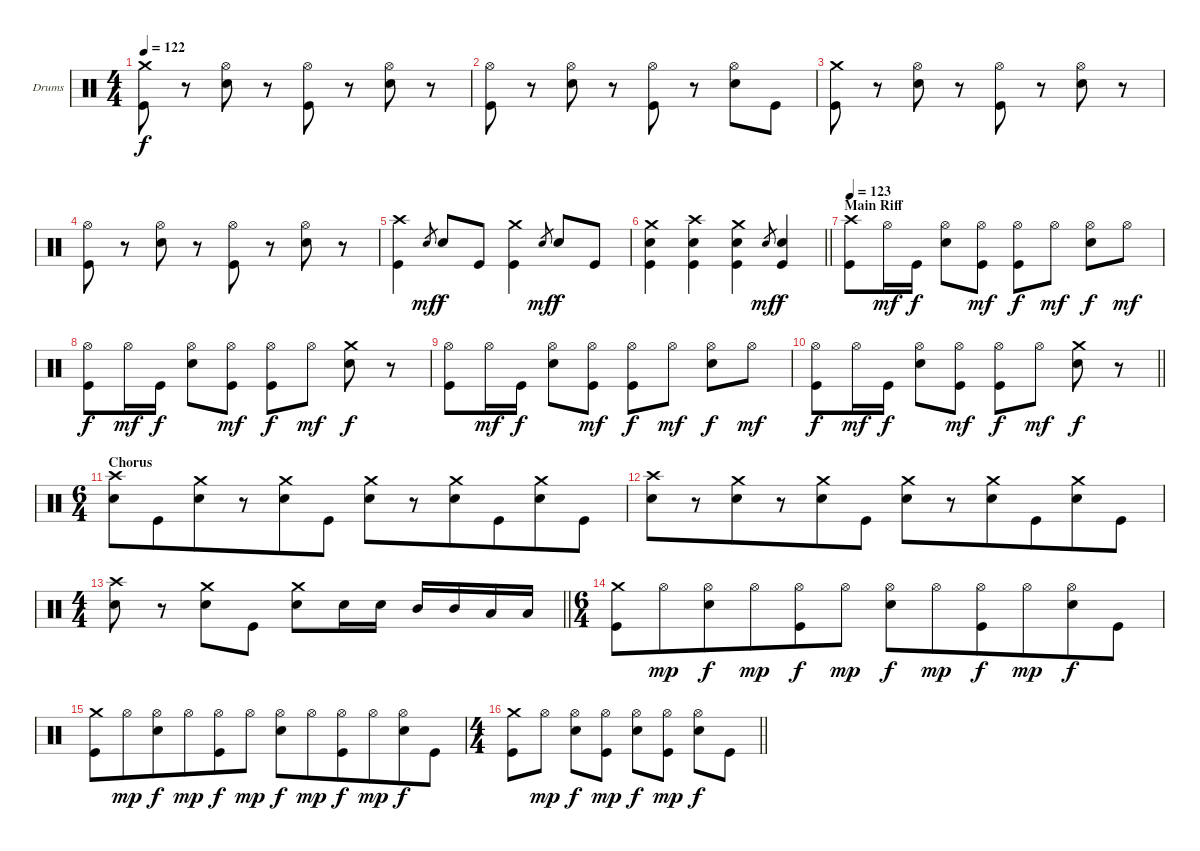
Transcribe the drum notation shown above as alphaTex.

\bracketExtendMode groupsimilarinstruments
\firstSystemTrackNameOrientation horizontal
\otherSystemsTrackNameOrientation horizontal
\track ("Drumkit" "Drums") {instrument percussion}
\staff {score}
\articulation defaults
\ts (4 4)
\tempo 122
\clef neutral
\ks c
("Crash medium (hit)" "Kick (hit)").8{dy f} r.8 ("Hi-Hat (open)" "Snare (hit) 2").8 r.8 ("Hi-Hat (open)" "Kick (hit)").8 r.8 ("Hi-Hat (open)" "Snare (hit) 2").8 r.8 |
("Hi-Hat (open)" "Kick (hit)").8 r.8 ("Hi-Hat (open)" "Snare (hit) 2").8 r.8 ("Hi-Hat (open)" "Kick (hit)").8 r.8 ("Hi-Hat (open)" "Snare (hit) 2").8 "Kick (hit)".8 |
("Crash medium (hit)" "Kick (hit)").8 r.8 ("Hi-Hat (open)" "Snare (hit) 2").8 r.8 ("Hi-Hat (open)" "Kick (hit)").8 r.8 ("Hi-Hat (open)" "Snare (hit) 2").8 r.8 |
("Hi-Hat (open)" "Kick (hit)").8 r.8 ("Hi-Hat (open)" "Snare (hit) 2").8 r.8 ("Hi-Hat (open)" "Kick (hit)").8 r.8 ("Hi-Hat (open)" "Snare (hit) 2").8 r.8 |
("Crash high (hit)" "Kick (hit)").4 "Snare (hit) 2".8{gr dy mf} "Snare (hit) 2".8{dy f} "Kick (hit)".8 ("Crash medium (hit)" "Kick (hit)").4 "Snare (hit) 2".8{gr dy mf} "Snare (hit) 2".8{dy f} "Kick (hit)".8 |
\barLineRight lightlight
("Crash medium (hit)" "Snare (hit) 2" "Kick (hit)").4 ("Crash high (hit)" "Snare (hit) 2" "Kick (hit)").4 ("Crash medium (hit)" "Snare (hit) 2" "Kick (hit)").4 "Snare (hit) 2".8{gr dy mf} ("Snare (hit) 2" "Kick (hit)").4{dy f} |
\section ("" "Main Riff")
\tempo 123
("Crash high (hit)" "Kick (hit)").8 "Hi-Hat (open)".16{dy mf} "Kick (hit)".16{dy f} ("Hi-Hat (open)" "Snare (hit) 2").8 ("Hi-Hat (open)" "Kick (hit)").8{dy mf} ("Hi-Hat (open)" "Kick (hit)").8{dy f} "Hi-Hat (open)".8{dy mf} ("Hi-Hat (open)" "Snare (hit) 2").8{dy f} "Hi-Hat (open)".8{dy mf} |
("Hi-Hat (open)" "Kick (hit)").8{dy f} "Hi-Hat (open)".16{dy mf} "Kick (hit)".16{dy f} ("Hi-Hat (open)" "Snare (hit) 2").8 ("Hi-Hat (open)" "Kick (hit)").8{dy mf} ("Hi-Hat (open)" "Kick (hit)").8{dy f} "Hi-Hat (open)".8{dy mf} ("Crash medium (hit)" "Snare (hit) 2").8{dy f} r.8 |
("Hi-Hat (open)" "Kick (hit)").8 "Hi-Hat (open)".16{dy mf} "Kick (hit)".16{dy f} ("Hi-Hat (open)" "Snare (hit) 2").8 ("Hi-Hat (open)" "Kick (hit)").8{dy mf} ("Hi-Hat (open)" "Kick (hit)").8{dy f} "Hi-Hat (open)".8{dy mf} ("Hi-Hat (open)" "Snare (hit) 2").8{dy f} "Hi-Hat (open)".8{dy mf} |
\barLineRight lightlight
("Hi-Hat (open)" "Kick (hit)").8{dy f} "Hi-Hat (open)".16{dy mf} "Kick (hit)".16{dy f} ("Hi-Hat (open)" "Snare (hit) 2").8 ("Hi-Hat (open)" "Kick (hit)").8{dy mf} ("Hi-Hat (open)" "Kick (hit)").8{dy f} "Hi-Hat (open)".8{dy mf} ("Crash medium (hit)" "Snare (hit) 2").8{dy f} r.8 |
\ts (6 4)
\beaming (8 6 6)
\section ("" "Chorus")
("Crash high (hit)" "Snare (hit) 2").8 "Kick (hit)".8 ("Crash medium (hit)" "Snare (hit) 2").8 r.8 ("Crash medium (hit)" "Snare (hit) 2").8 "Kick (hit)".8 ("Crash medium (hit)" "Snare (hit) 2").8 r.8 ("Crash medium (hit)" "Snare (hit) 2").8 "Kick (hit)".8 ("Crash medium (hit)" "Snare (hit) 2").8 "Kick (hit)".8 |
("Crash high (hit)" "Snare (hit) 2").8 r.8 ("Crash medium (hit)" "Snare (hit) 2").8 r.8 ("Crash medium (hit)" "Snare (hit) 2").8 "Kick (hit)".8 ("Crash medium (hit)" "Snare (hit) 2").8 r.8 ("Crash medium (hit)" "Snare (hit) 2").8 "Kick (hit)".8 ("Crash medium (hit)" "Snare (hit) 2").8 "Kick (hit)".8 |
\ts (4 4)
\beaming (8 2 2 2 2)
\barLineRight lightlight
("Crash high (hit)" "Snare (hit) 2").8 r.8 ("Crash medium (hit)" "Snare (hit) 2").8 "Kick (hit)".8 ("Crash medium (hit)" "Snare (hit) 2").8 "Snare (hit) 2".16 "Snare (hit) 2".16 "Mid Tom (hit)".16 "Mid Tom (hit)".16 "Low Tom (hit)".16 "Low Tom (hit)".16 |
\ts (6 4)
\beaming (8 6 6)
("Crash medium (hit)" "Kick (hit)").8 "Hi-Hat (open)".8{dy mp} ("Hi-Hat (open)" "Snare (hit) 2").8{dy f} "Hi-Hat (open)".8{dy mp} ("Hi-Hat (open)" "Kick (hit)").8{dy f} "Hi-Hat (open)".8{dy mp} ("Hi-Hat (open)" "Snare (hit) 2").8{dy f} "Hi-Hat (open)".8{dy mp} ("Hi-Hat (open)" "Kick (hit)").8{dy f} "Hi-Hat (open)".8{dy mp} ("Hi-Hat (open)" "Snare (hit) 2").8{dy f} "Kick (hit)".8 |
("Crash medium (hit)" "Kick (hit)").8 "Hi-Hat (open)".8{dy mp} ("Hi-Hat (open)" "Snare (hit) 2").8{dy f} "Hi-Hat (open)".8{dy mp} ("Hi-Hat (open)" "Kick (hit)").8{dy f} "Hi-Hat (open)".8{dy mp} ("Hi-Hat (open)" "Snare (hit) 2").8{dy f} "Hi-Hat (open)".8{dy mp} ("Hi-Hat (open)" "Kick (hit)").8{dy f} "Hi-Hat (open)".8{dy mp} ("Hi-Hat (open)" "Snare (hit) 2").8{dy f} "Kick (hit)".8 |
\ts (4 4)
\beaming (8 2 2 2 2)
\barLineRight lightlight
("Crash medium (hit)" "Kick (hit)").8 "Hi-Hat (open)".8{dy mp} ("Hi-Hat (open)" "Snare (hit) 2").8{dy f} ("Hi-Hat (open)" "Kick (hit)").8{dy mp} ("Hi-Hat (open)" "Snare (hit) 2").8{dy f} ("Hi-Hat (open)" "Kick (hit)").8{dy mp} ("Hi-Hat (open)" "Snare (hit) 2").8{dy f} "Kick (hit)".8
